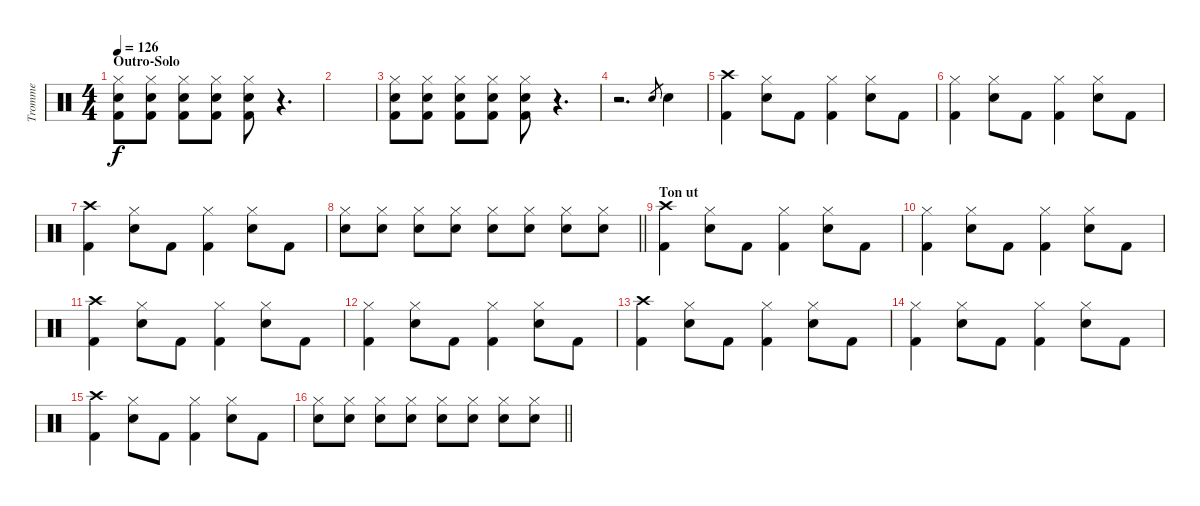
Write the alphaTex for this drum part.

\track ("Tromme" "Tromme") {instrument percussion}
\staff {score}
\articulation defaults
\ts (4 4)
\section ("" "Outro-Solo")
\tempo 126
\clef neutral
\ks c
("Hi-Hat (closed)" "Snare (hit) 2" "Kick (hit) 2").8{dy f} ("Hi-Hat (closed)" "Snare (hit) 2" "Kick (hit) 2").8 ("Hi-Hat (closed)" "Snare (hit) 2" "Kick (hit) 2").8 ("Hi-Hat (closed)" "Snare (hit) 2" "Kick (hit) 2").8 ("Hi-Hat (closed)" "Snare (hit) 2" "Kick (hit) 2").8 r.4{d} |
|
("Hi-Hat (closed)" "Snare (hit) 2" "Kick (hit) 2").8 ("Hi-Hat (closed)" "Snare (hit) 2" "Kick (hit) 2").8 ("Hi-Hat (closed)" "Snare (hit) 2" "Kick (hit) 2").8 ("Hi-Hat (closed)" "Snare (hit) 2" "Kick (hit) 2").8 ("Hi-Hat (closed)" "Snare (hit) 2" "Kick (hit) 2").8 r.4{d} |
r.2{d} "Snare (hit) 2".8{gr} "Snare (hit) 2".4 |
("Crash high (hit)" "Kick (hit) 2").4 ("Hi-Hat (closed)" "Snare (hit) 2").8 "Kick (hit) 2".8 ("Hi-Hat (closed)" "Kick (hit) 2").4 ("Hi-Hat (closed)" "Snare (hit) 2").8 "Kick (hit) 2".8 |
("Hi-Hat (closed)" "Kick (hit) 2").4 ("Hi-Hat (closed)" "Snare (hit) 2").8 "Kick (hit) 2".8 ("Hi-Hat (closed)" "Kick (hit) 2").4 ("Hi-Hat (closed)" "Snare (hit) 2").8 "Kick (hit) 2".8 |
("Crash high (hit)" "Kick (hit) 2").4 ("Hi-Hat (closed)" "Snare (hit) 2").8 "Kick (hit) 2".8 ("Hi-Hat (closed)" "Kick (hit) 2").4 ("Hi-Hat (closed)" "Snare (hit) 2").8 "Kick (hit) 2".8 |
\barLineRight lightlight
("Hi-Hat (closed)" "Snare (hit) 2").8 ("Hi-Hat (closed)" "Snare (hit) 2").8 ("Hi-Hat (closed)" "Snare (hit) 2").8 ("Hi-Hat (closed)" "Snare (hit) 2").8 ("Hi-Hat (closed)" "Snare (hit) 2").8 ("Hi-Hat (closed)" "Snare (hit) 2").8 ("Hi-Hat (closed)" "Snare (hit) 2").8 ("Hi-Hat (closed)" "Snare (hit) 2").8 |
\section ("" "Ton ut")
("Crash high (hit)" "Kick (hit) 2").4 ("Hi-Hat (closed)" "Snare (hit) 2").8 "Kick (hit) 2".8 ("Hi-Hat (closed)" "Kick (hit) 2").4 ("Hi-Hat (closed)" "Snare (hit) 2").8 "Kick (hit) 2".8 |
("Hi-Hat (closed)" "Kick (hit) 2").4 ("Hi-Hat (closed)" "Snare (hit) 2").8 "Kick (hit) 2".8 ("Hi-Hat (closed)" "Kick (hit) 2").4 ("Hi-Hat (closed)" "Snare (hit) 2").8 "Kick (hit) 2".8 |
("Crash high (hit)" "Kick (hit) 2").4 ("Hi-Hat (closed)" "Snare (hit) 2").8 "Kick (hit) 2".8 ("Hi-Hat (closed)" "Kick (hit) 2").4 ("Hi-Hat (closed)" "Snare (hit) 2").8 "Kick (hit) 2".8 |
("Hi-Hat (closed)" "Kick (hit) 2").4 ("Hi-Hat (closed)" "Snare (hit) 2").8 "Kick (hit) 2".8 ("Hi-Hat (closed)" "Kick (hit) 2").4 ("Hi-Hat (closed)" "Snare (hit) 2").8 "Kick (hit) 2".8 |
("Crash high (hit)" "Kick (hit) 2").4 ("Hi-Hat (closed)" "Snare (hit) 2").8 "Kick (hit) 2".8 ("Hi-Hat (closed)" "Kick (hit) 2").4 ("Hi-Hat (closed)" "Snare (hit) 2").8 "Kick (hit) 2".8 |
("Hi-Hat (closed)" "Kick (hit) 2").4 ("Hi-Hat (closed)" "Snare (hit) 2").8 "Kick (hit) 2".8 ("Hi-Hat (closed)" "Kick (hit) 2").4 ("Hi-Hat (closed)" "Snare (hit) 2").8 "Kick (hit) 2".8 |
("Crash high (hit)" "Kick (hit) 2").4 ("Hi-Hat (closed)" "Snare (hit) 2").8 "Kick (hit) 2".8 ("Hi-Hat (closed)" "Kick (hit) 2").4 ("Hi-Hat (closed)" "Snare (hit) 2").8 "Kick (hit) 2".8 |
\barLineRight lightlight
("Hi-Hat (closed)" "Snare (hit) 2").8 ("Hi-Hat (closed)" "Snare (hit) 2").8 ("Hi-Hat (closed)" "Snare (hit) 2").8 ("Hi-Hat (closed)" "Snare (hit) 2").8 ("Hi-Hat (closed)" "Snare (hit) 2").8 ("Hi-Hat (closed)" "Snare (hit) 2").8 ("Hi-Hat (closed)" "Snare (hit) 2").8 ("Hi-Hat (closed)" "Snare (hit) 2").8
